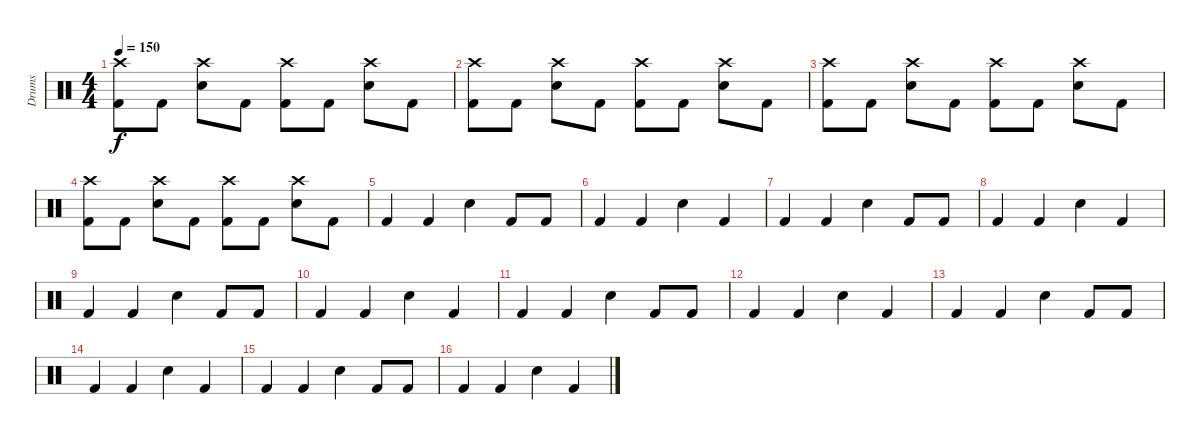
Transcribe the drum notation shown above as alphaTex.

\track ("Drums" "Drums") {instrument percussion}
\staff
\articulation defaults
\ts (4 4)
\tempo 150
\clef neutral
\ks c
("Crash high (hit)" "Kick (hit) 2").8{dy f} "Kick (hit) 2".8 ("Crash high (hit)" "Snare (hit) 2").8 "Kick (hit) 2".8 ("Crash high (hit)" "Kick (hit) 2").8 "Kick (hit) 2".8 ("Crash high (hit)" "Snare (hit) 2").8 "Kick (hit) 2".8 |
("Crash high (hit)" "Kick (hit) 2").8 "Kick (hit) 2".8 ("Crash high (hit)" "Snare (hit) 2").8 "Kick (hit) 2".8 ("Crash high (hit)" "Kick (hit) 2").8 "Kick (hit) 2".8 ("Crash high (hit)" "Snare (hit) 2").8 "Kick (hit) 2".8 |
("Crash high (hit)" "Kick (hit) 2").8 "Kick (hit) 2".8 ("Crash high (hit)" "Snare (hit) 2").8 "Kick (hit) 2".8 ("Crash high (hit)" "Kick (hit) 2").8 "Kick (hit) 2".8 ("Crash high (hit)" "Snare (hit) 2").8 "Kick (hit) 2".8 |
("Crash high (hit)" "Kick (hit) 2").8 "Kick (hit) 2".8 ("Crash high (hit)" "Snare (hit) 2").8 "Kick (hit) 2".8 ("Crash high (hit)" "Kick (hit) 2").8 "Kick (hit) 2".8 ("Crash high (hit)" "Snare (hit) 2").8 "Kick (hit) 2".8 |
"Kick (hit) 2".4 "Kick (hit) 2".4 "Snare (hit) 2".4 "Kick (hit) 2".8 "Kick (hit) 2".8 |
"Kick (hit) 2".4 "Kick (hit) 2".4 "Snare (hit) 2".4 "Kick (hit) 2".4 |
"Kick (hit) 2".4 "Kick (hit) 2".4 "Snare (hit) 2".4 "Kick (hit) 2".8 "Kick (hit) 2".8 |
"Kick (hit) 2".4 "Kick (hit) 2".4 "Snare (hit) 2".4 "Kick (hit) 2".4 |
"Kick (hit) 2".4 "Kick (hit) 2".4 "Snare (hit) 2".4 "Kick (hit) 2".8 "Kick (hit) 2".8 |
"Kick (hit) 2".4 "Kick (hit) 2".4 "Snare (hit) 2".4 "Kick (hit) 2".4 |
"Kick (hit) 2".4 "Kick (hit) 2".4 "Snare (hit) 2".4 "Kick (hit) 2".8 "Kick (hit) 2".8 |
"Kick (hit) 2".4 "Kick (hit) 2".4 "Snare (hit) 2".4 "Kick (hit) 2".4 |
"Kick (hit) 2".4 "Kick (hit) 2".4 "Snare (hit) 2".4 "Kick (hit) 2".8 "Kick (hit) 2".8 |
"Kick (hit) 2".4 "Kick (hit) 2".4 "Snare (hit) 2".4 "Kick (hit) 2".4 |
"Kick (hit) 2".4 "Kick (hit) 2".4 "Snare (hit) 2".4 "Kick (hit) 2".8 "Kick (hit) 2".8 |
"Kick (hit) 2".4 "Kick (hit) 2".4 "Snare (hit) 2".4 "Kick (hit) 2".4
